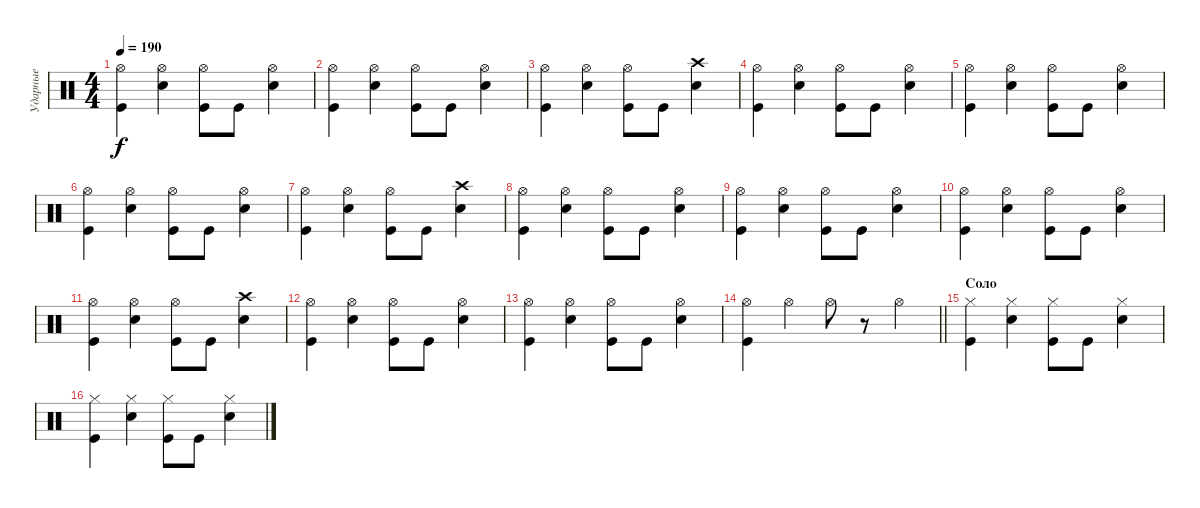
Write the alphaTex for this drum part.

\track ("Ударные" "Ударные") {instrument percussion}
\staff {score}
\articulation defaults
\ts (4 4)
\tempo 190
\clef neutral
\ks c
("Hi-Hat (open)" "Kick (hit)").4{dy f} ("Hi-Hat (open)" "Snare (hit) 2").4 ("Hi-Hat (open)" "Kick (hit)").8 "Kick (hit)".8 ("Hi-Hat (open)" "Snare (hit) 2").4 |
("Hi-Hat (open)" "Kick (hit)").4 ("Hi-Hat (open)" "Snare (hit) 2").4 ("Hi-Hat (open)" "Kick (hit)").8 "Kick (hit)".8 ("Hi-Hat (open)" "Snare (hit) 2").4 |
("Hi-Hat (open)" "Kick (hit)").4 ("Hi-Hat (open)" "Snare (hit) 2").4 ("Hi-Hat (open)" "Kick (hit)").8 "Kick (hit)".8 ("Crash high (hit)" "Snare (hit) 2").4 |
("Hi-Hat (open)" "Kick (hit)").4 ("Hi-Hat (open)" "Snare (hit) 2").4 ("Hi-Hat (open)" "Kick (hit)").8 "Kick (hit)".8 ("Hi-Hat (open)" "Snare (hit) 2").4 |
("Hi-Hat (open)" "Kick (hit)").4 ("Hi-Hat (open)" "Snare (hit) 2").4 ("Hi-Hat (open)" "Kick (hit)").8 "Kick (hit)".8 ("Hi-Hat (open)" "Snare (hit) 2").4 |
("Hi-Hat (open)" "Kick (hit)").4 ("Hi-Hat (open)" "Snare (hit) 2").4 ("Hi-Hat (open)" "Kick (hit)").8 "Kick (hit)".8 ("Hi-Hat (open)" "Snare (hit) 2").4 |
("Hi-Hat (open)" "Kick (hit)").4 ("Hi-Hat (open)" "Snare (hit) 2").4 ("Hi-Hat (open)" "Kick (hit)").8 "Kick (hit)".8 ("Crash high (hit)" "Snare (hit) 2").4 |
("Hi-Hat (open)" "Kick (hit)").4 ("Hi-Hat (open)" "Snare (hit) 2").4 ("Hi-Hat (open)" "Kick (hit)").8 "Kick (hit)".8 ("Hi-Hat (open)" "Snare (hit) 2").4 |
("Hi-Hat (open)" "Kick (hit)").4 ("Hi-Hat (open)" "Snare (hit) 2").4 ("Hi-Hat (open)" "Kick (hit)").8 "Kick (hit)".8 ("Hi-Hat (open)" "Snare (hit) 2").4 |
("Hi-Hat (open)" "Kick (hit)").4 ("Hi-Hat (open)" "Snare (hit) 2").4 ("Hi-Hat (open)" "Kick (hit)").8 "Kick (hit)".8 ("Hi-Hat (open)" "Snare (hit) 2").4 |
("Hi-Hat (open)" "Kick (hit)").4 ("Hi-Hat (open)" "Snare (hit) 2").4 ("Hi-Hat (open)" "Kick (hit)").8 "Kick (hit)".8 ("Crash high (hit)" "Snare (hit) 2").4 |
("Hi-Hat (open)" "Kick (hit)").4 ("Hi-Hat (open)" "Snare (hit) 2").4 ("Hi-Hat (open)" "Kick (hit)").8 "Kick (hit)".8 ("Hi-Hat (open)" "Snare (hit) 2").4 |
("Hi-Hat (open)" "Kick (hit)").4 ("Hi-Hat (open)" "Snare (hit) 2").4 ("Hi-Hat (open)" "Kick (hit)").8 "Kick (hit)".8 ("Hi-Hat (open)" "Snare (hit) 2").4 |
\barLineRight lightlight
("Hi-Hat (open)" "Kick (hit)").4 "Hi-Hat (open)".4 "Hi-Hat (open)".8 r.8 "Hi-Hat (open)".4 |
\section ("" "Соло")
("Hi-Hat (closed)" "Kick (hit)").4 ("Hi-Hat (closed)" "Snare (hit) 2").4 ("Hi-Hat (closed)" "Kick (hit)").8 "Kick (hit)".8 ("Hi-Hat (closed)" "Snare (hit) 2").4 |
("Hi-Hat (closed)" "Kick (hit)").4 ("Hi-Hat (closed)" "Snare (hit) 2").4 ("Hi-Hat (closed)" "Kick (hit)").8 "Kick (hit)".8 ("Hi-Hat (closed)" "Snare (hit) 2").4
